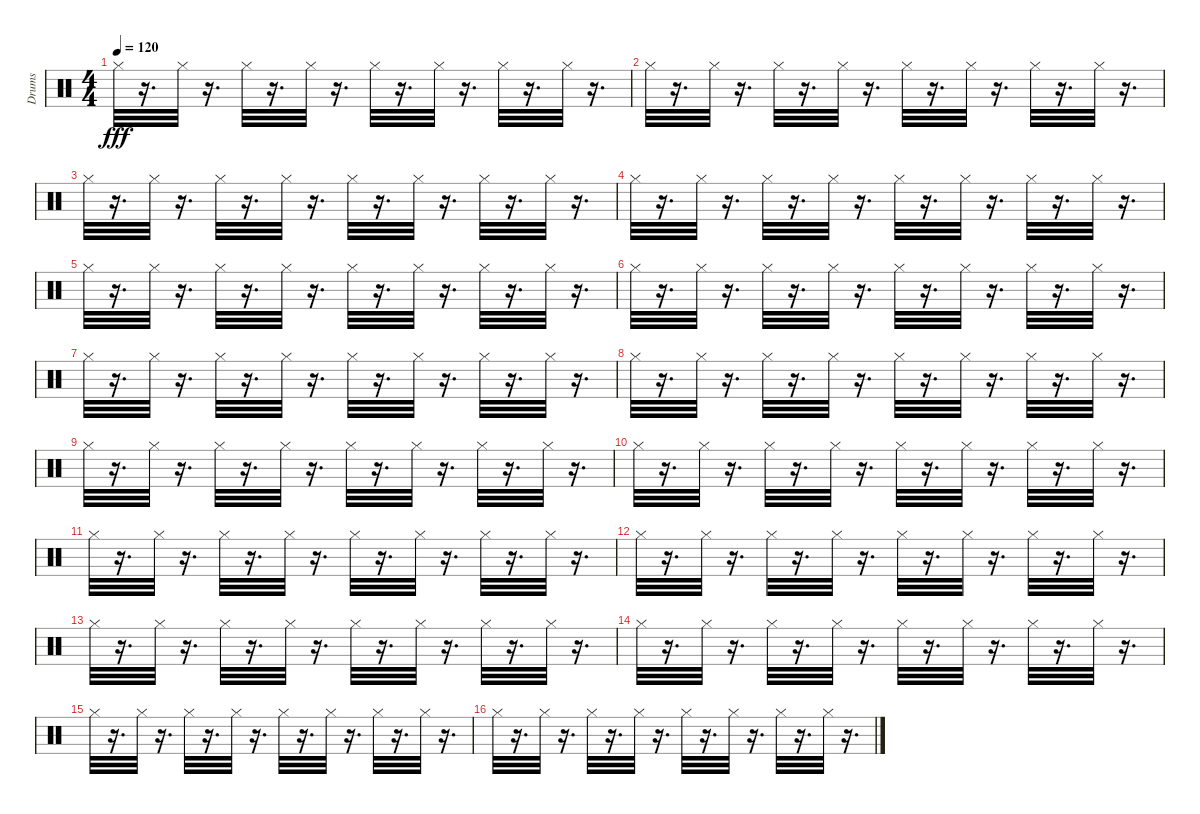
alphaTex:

\track ("Drums" "Drums") {instrument percussion}
\staff {score}
\articulation defaults
\ts (4 4)
\tempo 120
\clef neutral
\ks c "Hi-Hat (closed)".32{dy fff}
r.16{d} "Hi-Hat (closed)".32 r.16{d} "Hi-Hat (closed)".32 r.16{d} "Hi-Hat (closed)".32 r.16{d} "Hi-Hat (closed)".32 r.16{d} "Hi-Hat (closed)".32 r.16{d} "Hi-Hat (closed)".32 r.16{d} "Hi-Hat (closed)".32 r.16{d} |
"Hi-Hat (closed)".32 r.16{d} "Hi-Hat (closed)".32 r.16{d} "Hi-Hat (closed)".32 r.16{d} "Hi-Hat (closed)".32 r.16{d} "Hi-Hat (closed)".32 r.16{d} "Hi-Hat (closed)".32 r.16{d} "Hi-Hat (closed)".32 r.16{d} "Hi-Hat (closed)".32 r.16{d} |
"Hi-Hat (closed)".32 r.16{d} "Hi-Hat (closed)".32 r.16{d} "Hi-Hat (closed)".32 r.16{d} "Hi-Hat (closed)".32 r.16{d} "Hi-Hat (closed)".32 r.16{d} "Hi-Hat (closed)".32 r.16{d} "Hi-Hat (closed)".32 r.16{d} "Hi-Hat (closed)".32 r.16{d} |
"Hi-Hat (closed)".32 r.16{d} "Hi-Hat (closed)".32 r.16{d} "Hi-Hat (closed)".32 r.16{d} "Hi-Hat (closed)".32 r.16{d} "Hi-Hat (closed)".32 r.16{d} "Hi-Hat (closed)".32 r.16{d} "Hi-Hat (closed)".32 r.16{d} "Hi-Hat (closed)".32 r.16{d} |
"Hi-Hat (closed)".32 r.16{d} "Hi-Hat (closed)".32 r.16{d} "Hi-Hat (closed)".32 r.16{d} "Hi-Hat (closed)".32 r.16{d} "Hi-Hat (closed)".32 r.16{d} "Hi-Hat (closed)".32 r.16{d} "Hi-Hat (closed)".32 r.16{d} "Hi-Hat (closed)".32 r.16{d} |
"Hi-Hat (closed)".32 r.16{d} "Hi-Hat (closed)".32 r.16{d} "Hi-Hat (closed)".32 r.16{d} "Hi-Hat (closed)".32 r.16{d} "Hi-Hat (closed)".32 r.16{d} "Hi-Hat (closed)".32 r.16{d} "Hi-Hat (closed)".32 r.16{d} "Hi-Hat (closed)".32 r.16{d} |
"Hi-Hat (closed)".32 r.16{d} "Hi-Hat (closed)".32 r.16{d} "Hi-Hat (closed)".32 r.16{d} "Hi-Hat (closed)".32 r.16{d} "Hi-Hat (closed)".32 r.16{d} "Hi-Hat (closed)".32 r.16{d} "Hi-Hat (closed)".32 r.16{d} "Hi-Hat (closed)".32 r.16{d} |
"Hi-Hat (closed)".32 r.16{d} "Hi-Hat (closed)".32 r.16{d} "Hi-Hat (closed)".32 r.16{d} "Hi-Hat (closed)".32 r.16{d} "Hi-Hat (closed)".32 r.16{d} "Hi-Hat (closed)".32 r.16{d} "Hi-Hat (closed)".32 r.16{d} "Hi-Hat (closed)".32 r.16{d} |
"Hi-Hat (closed)".32 r.16{d} "Hi-Hat (closed)".32 r.16{d} "Hi-Hat (closed)".32 r.16{d} "Hi-Hat (closed)".32 r.16{d} "Hi-Hat (closed)".32 r.16{d} "Hi-Hat (closed)".32 r.16{d} "Hi-Hat (closed)".32 r.16{d} "Hi-Hat (closed)".32 r.16{d} |
"Hi-Hat (closed)".32 r.16{d} "Hi-Hat (closed)".32 r.16{d} "Hi-Hat (closed)".32 r.16{d} "Hi-Hat (closed)".32 r.16{d} "Hi-Hat (closed)".32 r.16{d} "Hi-Hat (closed)".32 r.16{d} "Hi-Hat (closed)".32 r.16{d} "Hi-Hat (closed)".32 r.16{d} |
"Hi-Hat (closed)".32 r.16{d} "Hi-Hat (closed)".32 r.16{d} "Hi-Hat (closed)".32 r.16{d} "Hi-Hat (closed)".32 r.16{d} "Hi-Hat (closed)".32 r.16{d} "Hi-Hat (closed)".32 r.16{d} "Hi-Hat (closed)".32 r.16{d} "Hi-Hat (closed)".32 r.16{d} |
"Hi-Hat (closed)".32 r.16{d} "Hi-Hat (closed)".32 r.16{d} "Hi-Hat (closed)".32 r.16{d} "Hi-Hat (closed)".32 r.16{d} "Hi-Hat (closed)".32 r.16{d} "Hi-Hat (closed)".32 r.16{d} "Hi-Hat (closed)".32 r.16{d} "Hi-Hat (closed)".32 r.16{d} |
"Hi-Hat (closed)".32 r.16{d} "Hi-Hat (closed)".32 r.16{d} "Hi-Hat (closed)".32 r.16{d} "Hi-Hat (closed)".32 r.16{d} "Hi-Hat (closed)".32 r.16{d} "Hi-Hat (closed)".32 r.16{d} "Hi-Hat (closed)".32 r.16{d} "Hi-Hat (closed)".32 r.16{d} |
"Hi-Hat (closed)".32 r.16{d} "Hi-Hat (closed)".32 r.16{d} "Hi-Hat (closed)".32 r.16{d} "Hi-Hat (closed)".32 r.16{d} "Hi-Hat (closed)".32 r.16{d} "Hi-Hat (closed)".32 r.16{d} "Hi-Hat (closed)".32 r.16{d} "Hi-Hat (closed)".32 r.16{d} |
"Hi-Hat (closed)".32 r.16{d} "Hi-Hat (closed)".32 r.16{d} "Hi-Hat (closed)".32 r.16{d} "Hi-Hat (closed)".32 r.16{d} "Hi-Hat (closed)".32 r.16{d} "Hi-Hat (closed)".32 r.16{d} "Hi-Hat (closed)".32 r.16{d} "Hi-Hat (closed)".32 r.16{d} |
"Hi-Hat (closed)".32 r.16{d} "Hi-Hat (closed)".32 r.16{d} "Hi-Hat (closed)".32 r.16{d} "Hi-Hat (closed)".32 r.16{d} "Hi-Hat (closed)".32 r.16{d} "Hi-Hat (closed)".32 r.16{d} "Hi-Hat (closed)".32 r.16{d} "Hi-Hat (closed)".32 r.16{d}
